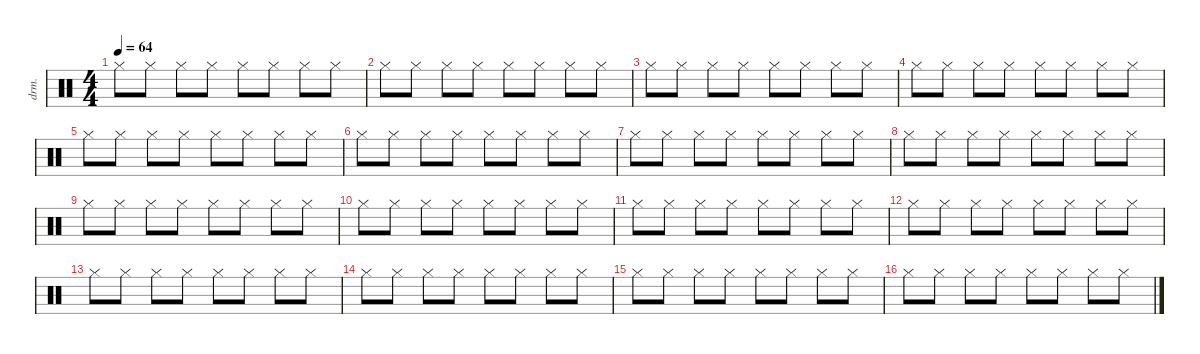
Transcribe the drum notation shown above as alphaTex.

\defaultSystemsLayout 4
\hideDynamics
\bracketExtendMode nobrackets
\otherSystemsTrackNameOrientation horizontal
\track ("hit" "drm.") {instrument percussion}
\staff {score}
\articulation defaults
\ts (4 4)
\tempo 64
\clef neutral
\ks c "Hi-Hat (closed)".8{dy f} "Hi-Hat (closed)".8 "Hi-Hat (closed)".8 "Hi-Hat (closed)".8 "Hi-Hat (closed)".8 "Hi-Hat (closed)".8 "Hi-Hat (closed)".8 "Hi-Hat (closed)".8
|
"Hi-Hat (closed)".8 "Hi-Hat (closed)".8 "Hi-Hat (closed)".8 "Hi-Hat (closed)".8 "Hi-Hat (closed)".8 "Hi-Hat (closed)".8 "Hi-Hat (closed)".8 "Hi-Hat (closed)".8 |
"Hi-Hat (closed)".8 "Hi-Hat (closed)".8 "Hi-Hat (closed)".8 "Hi-Hat (closed)".8 "Hi-Hat (closed)".8 "Hi-Hat (closed)".8 "Hi-Hat (closed)".8 "Hi-Hat (closed)".8 |
"Hi-Hat (closed)".8 "Hi-Hat (closed)".8 "Hi-Hat (closed)".8 "Hi-Hat (closed)".8 "Hi-Hat (closed)".8 "Hi-Hat (closed)".8 "Hi-Hat (closed)".8 "Hi-Hat (closed)".8 |
"Hi-Hat (closed)".8 "Hi-Hat (closed)".8 "Hi-Hat (closed)".8 "Hi-Hat (closed)".8 "Hi-Hat (closed)".8 "Hi-Hat (closed)".8 "Hi-Hat (closed)".8 "Hi-Hat (closed)".8 |
"Hi-Hat (closed)".8 "Hi-Hat (closed)".8 "Hi-Hat (closed)".8 "Hi-Hat (closed)".8 "Hi-Hat (closed)".8 "Hi-Hat (closed)".8 "Hi-Hat (closed)".8 "Hi-Hat (closed)".8 |
"Hi-Hat (closed)".8 "Hi-Hat (closed)".8 "Hi-Hat (closed)".8 "Hi-Hat (closed)".8 "Hi-Hat (closed)".8 "Hi-Hat (closed)".8 "Hi-Hat (closed)".8 "Hi-Hat (closed)".8 |
"Hi-Hat (closed)".8 "Hi-Hat (closed)".8 "Hi-Hat (closed)".8 "Hi-Hat (closed)".8 "Hi-Hat (closed)".8 "Hi-Hat (closed)".8 "Hi-Hat (closed)".8 "Hi-Hat (closed)".8 |
"Hi-Hat (closed)".8 "Hi-Hat (closed)".8 "Hi-Hat (closed)".8 "Hi-Hat (closed)".8 "Hi-Hat (closed)".8 "Hi-Hat (closed)".8 "Hi-Hat (closed)".8 "Hi-Hat (closed)".8 |
"Hi-Hat (closed)".8 "Hi-Hat (closed)".8 "Hi-Hat (closed)".8 "Hi-Hat (closed)".8 "Hi-Hat (closed)".8 "Hi-Hat (closed)".8 "Hi-Hat (closed)".8 "Hi-Hat (closed)".8 |
"Hi-Hat (closed)".8 "Hi-Hat (closed)".8 "Hi-Hat (closed)".8 "Hi-Hat (closed)".8 "Hi-Hat (closed)".8 "Hi-Hat (closed)".8 "Hi-Hat (closed)".8 "Hi-Hat (closed)".8 |
"Hi-Hat (closed)".8 "Hi-Hat (closed)".8 "Hi-Hat (closed)".8 "Hi-Hat (closed)".8 "Hi-Hat (closed)".8 "Hi-Hat (closed)".8 "Hi-Hat (closed)".8 "Hi-Hat (closed)".8 |
"Hi-Hat (closed)".8 "Hi-Hat (closed)".8 "Hi-Hat (closed)".8 "Hi-Hat (closed)".8 "Hi-Hat (closed)".8 "Hi-Hat (closed)".8 "Hi-Hat (closed)".8 "Hi-Hat (closed)".8 |
"Hi-Hat (closed)".8 "Hi-Hat (closed)".8 "Hi-Hat (closed)".8 "Hi-Hat (closed)".8 "Hi-Hat (closed)".8 "Hi-Hat (closed)".8 "Hi-Hat (closed)".8 "Hi-Hat (closed)".8 |
"Hi-Hat (closed)".8 "Hi-Hat (closed)".8 "Hi-Hat (closed)".8 "Hi-Hat (closed)".8 "Hi-Hat (closed)".8 "Hi-Hat (closed)".8 "Hi-Hat (closed)".8 "Hi-Hat (closed)".8 |
"Hi-Hat (closed)".8 "Hi-Hat (closed)".8 "Hi-Hat (closed)".8 "Hi-Hat (closed)".8 "Hi-Hat (closed)".8 "Hi-Hat (closed)".8 "Hi-Hat (closed)".8 "Hi-Hat (closed)".8
